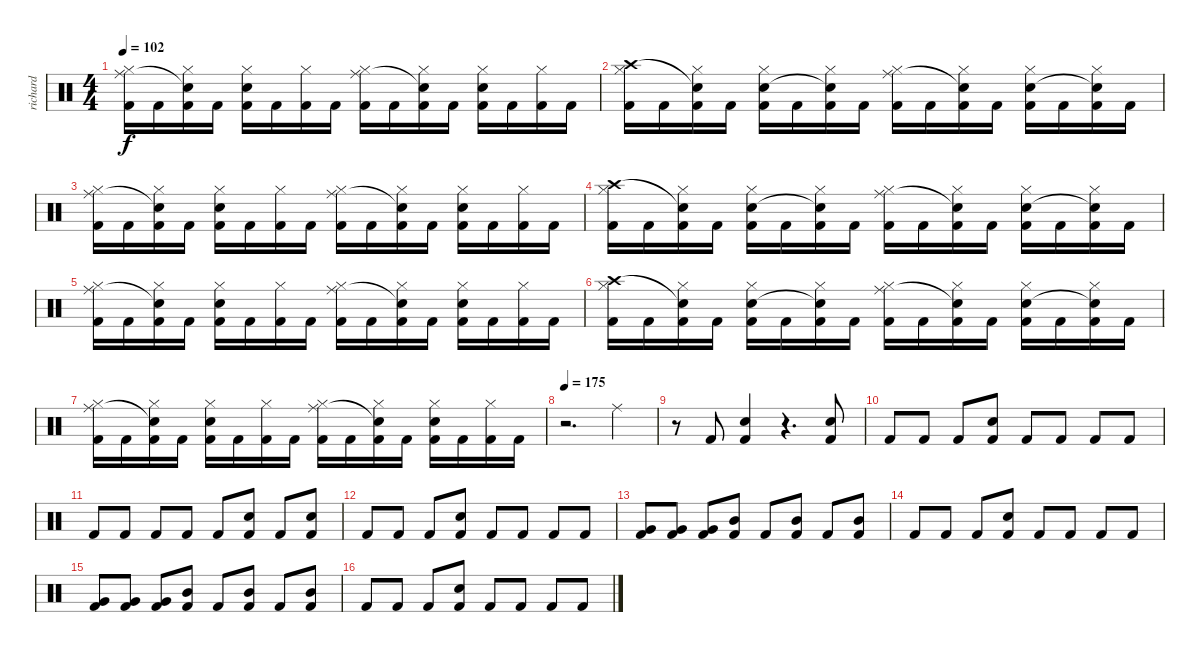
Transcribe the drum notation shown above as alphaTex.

\track ("richard" "richard") {instrument percussion}
\staff {score}
\articulation defaults
\ts (4 4)
\tempo 102
\clef neutral
\ks c
("Hi-Hat (closed)" "Ride (middle)" "Kick (hit) 2").16{dy f} "Kick (hit) 2".16 ("Hi-Hat (closed)" "Snare (hit)"{t} "Kick (hit) 2").16 "Kick (hit) 2".16 ("Hi-Hat (closed)" "Snare (hit) 2" "Kick (hit) 2").16 "Kick (hit) 2".16 ("Hi-Hat (closed)" "Kick (hit) 2").16 "Kick (hit) 2".16 ("Hi-Hat (closed)" "Ride (middle)" "Kick (hit) 2").16 "Kick (hit) 2".16 ("Hi-Hat (closed)" "Snare (hit)"{t} "Kick (hit) 2").16 "Kick (hit) 2".16 ("Hi-Hat (closed)" "Snare (hit) 2" "Kick (hit) 2").16 "Kick (hit) 2".16 ("Hi-Hat (closed)" "Kick (hit) 2").16 "Kick (hit) 2".16 |
("Hi-Hat (closed)" "Crash high (hit)" "Kick (hit) 2").16 "Kick (hit) 2".16 ("Hi-Hat (closed)" "Snare (hit)"{t} "Kick (hit) 2").16 "Kick (hit) 2".16 ("Hi-Hat (closed)" "Snare (hit) 2" "Kick (hit) 2").16 "Kick (hit) 2".16 ("Hi-Hat (closed)" "Snare (hit)"{t} "Kick (hit) 2").16 "Kick (hit) 2".16 ("Hi-Hat (closed)" "Ride (middle)" "Kick (hit) 2").16 "Kick (hit) 2".16 ("Hi-Hat (closed)" "Snare (hit)"{t} "Kick (hit) 2").16 "Kick (hit) 2".16 ("Hi-Hat (closed)" "Snare (hit) 2" "Kick (hit) 2").16 "Kick (hit) 2".16 ("Hi-Hat (closed)" "Snare (hit)"{t} "Kick (hit) 2").16 "Kick (hit) 2".16 |
("Hi-Hat (closed)" "Ride (middle)" "Kick (hit) 2").16 "Kick (hit) 2".16 ("Hi-Hat (closed)" "Snare (hit)"{t} "Kick (hit) 2").16 "Kick (hit) 2".16 ("Hi-Hat (closed)" "Snare (hit) 2" "Kick (hit) 2").16 "Kick (hit) 2".16 ("Hi-Hat (closed)" "Kick (hit) 2").16 "Kick (hit) 2".16 ("Hi-Hat (closed)" "Ride (middle)" "Kick (hit) 2").16 "Kick (hit) 2".16 ("Hi-Hat (closed)" "Snare (hit)"{t} "Kick (hit) 2").16 "Kick (hit) 2".16 ("Hi-Hat (closed)" "Snare (hit) 2" "Kick (hit) 2").16 "Kick (hit) 2".16 ("Hi-Hat (closed)" "Kick (hit) 2").16 "Kick (hit) 2".16 |
("Hi-Hat (closed)" "Crash high (hit)" "Kick (hit) 2").16 "Kick (hit) 2".16 ("Hi-Hat (closed)" "Snare (hit)"{t} "Kick (hit) 2").16 "Kick (hit) 2".16 ("Hi-Hat (closed)" "Snare (hit) 2" "Kick (hit) 2").16 "Kick (hit) 2".16 ("Hi-Hat (closed)" "Snare (hit)"{t} "Kick (hit) 2").16 "Kick (hit) 2".16 ("Hi-Hat (closed)" "Ride (middle)" "Kick (hit) 2").16 "Kick (hit) 2".16 ("Hi-Hat (closed)" "Snare (hit)"{t} "Kick (hit) 2").16 "Kick (hit) 2".16 ("Hi-Hat (closed)" "Snare (hit) 2" "Kick (hit) 2").16 "Kick (hit) 2".16 ("Hi-Hat (closed)" "Snare (hit)"{t} "Kick (hit) 2").16 "Kick (hit) 2".16 |
("Hi-Hat (closed)" "Ride (middle)" "Kick (hit) 2").16 "Kick (hit) 2".16 ("Hi-Hat (closed)" "Snare (hit)"{t} "Kick (hit) 2").16 "Kick (hit) 2".16 ("Hi-Hat (closed)" "Snare (hit) 2" "Kick (hit) 2").16 "Kick (hit) 2".16 ("Hi-Hat (closed)" "Kick (hit) 2").16 "Kick (hit) 2".16 ("Hi-Hat (closed)" "Ride (middle)" "Kick (hit) 2").16 "Kick (hit) 2".16 ("Hi-Hat (closed)" "Snare (hit)"{t} "Kick (hit) 2").16 "Kick (hit) 2".16 ("Hi-Hat (closed)" "Snare (hit) 2" "Kick (hit) 2").16 "Kick (hit) 2".16 ("Hi-Hat (closed)" "Kick (hit) 2").16 "Kick (hit) 2".16 |
("Hi-Hat (closed)" "Crash high (hit)" "Kick (hit) 2").16 "Kick (hit) 2".16 ("Hi-Hat (closed)" "Snare (hit)"{t} "Kick (hit) 2").16 "Kick (hit) 2".16 ("Hi-Hat (closed)" "Snare (hit) 2" "Kick (hit) 2").16 "Kick (hit) 2".16 ("Hi-Hat (closed)" "Snare (hit)"{t} "Kick (hit) 2").16 "Kick (hit) 2".16 ("Hi-Hat (closed)" "Ride (middle)" "Kick (hit) 2").16 "Kick (hit) 2".16 ("Hi-Hat (closed)" "Snare (hit)"{t} "Kick (hit) 2").16 "Kick (hit) 2".16 ("Hi-Hat (closed)" "Snare (hit) 2" "Kick (hit) 2").16 "Kick (hit) 2".16 ("Hi-Hat (closed)" "Snare (hit)"{t} "Kick (hit) 2").16 "Kick (hit) 2".16 |
("Hi-Hat (closed)" "Ride (middle)" "Kick (hit) 2").16 "Kick (hit) 2".16 ("Hi-Hat (closed)" "Snare (hit)"{t} "Kick (hit) 2").16 "Kick (hit) 2".16 ("Hi-Hat (closed)" "Snare (hit) 2" "Kick (hit) 2").16 "Kick (hit) 2".16 ("Hi-Hat (closed)" "Kick (hit) 2").16 "Kick (hit) 2".16 ("Hi-Hat (closed)" "Ride (middle)" "Kick (hit) 2").16 "Kick (hit) 2".16 ("Hi-Hat (closed)" "Snare (hit)"{t} "Kick (hit) 2").16 "Kick (hit) 2".16 ("Hi-Hat (closed)" "Snare (hit) 2" "Kick (hit) 2").16 "Kick (hit) 2".16 ("Hi-Hat (closed)" "Kick (hit) 2").16 "Kick (hit) 2".16 |
\tempo 175
r.2{d} "Ride (middle)".4 |
r.8 "Kick (hit) 2".8 ("Snare (hit) 2" "Kick (hit) 2").4 r.4{d} ("Snare (hit) 2" "Kick (hit) 2").8 |
"Kick (hit) 2".8 "Kick (hit) 2".8 "Kick (hit) 2".8 ("Snare (hit) 2" "Kick (hit) 2").8 "Kick (hit) 2".8 "Kick (hit) 2".8 "Kick (hit) 2".8 "Kick (hit) 2".8 |
"Kick (hit) 2".8 "Kick (hit) 2".8 "Kick (hit) 2".8 "Kick (hit) 2".8 "Kick (hit) 2".8 ("Snare (hit) 2" "Kick (hit) 2").8 "Kick (hit) 2".8 ("Snare (hit) 2" "Kick (hit) 2").8 |
"Kick (hit) 2".8 "Kick (hit) 2".8 "Kick (hit) 2".8 ("Snare (hit) 2" "Kick (hit) 2").8 "Kick (hit) 2".8 "Kick (hit) 2".8 "Kick (hit) 2".8 "Kick (hit) 2".8 |
("Very Low Tom (hit)" "Kick (hit) 2").8 ("Very Low Tom (hit)" "Kick (hit) 2").8 ("Very Low Tom (hit)" "Kick (hit) 2").8 ("Mid Tom (hit)" "Kick (hit) 2").8 "Kick (hit) 2".8 ("Mid Tom (hit)" "Kick (hit) 2").8 "Kick (hit) 2".8 ("Mid Tom (hit)" "Kick (hit) 2").8 |
"Kick (hit) 2".8 "Kick (hit) 2".8 "Kick (hit) 2".8 ("Snare (hit) 2" "Kick (hit) 2").8 "Kick (hit) 2".8 "Kick (hit) 2".8 "Kick (hit) 2".8 "Kick (hit) 2".8 |
("Very Low Tom (hit)" "Kick (hit) 2").8 ("Very Low Tom (hit)" "Kick (hit) 2").8 ("Very Low Tom (hit)" "Kick (hit) 2").8 ("Mid Tom (hit)" "Kick (hit) 2").8 "Kick (hit) 2".8 ("Mid Tom (hit)" "Kick (hit) 2").8 "Kick (hit) 2".8 ("Mid Tom (hit)" "Kick (hit) 2").8 |
"Kick (hit) 2".8 "Kick (hit) 2".8 "Kick (hit) 2".8 ("Snare (hit) 2" "Kick (hit) 2").8 "Kick (hit) 2".8 "Kick (hit) 2".8 "Kick (hit) 2".8 "Kick (hit) 2".8
